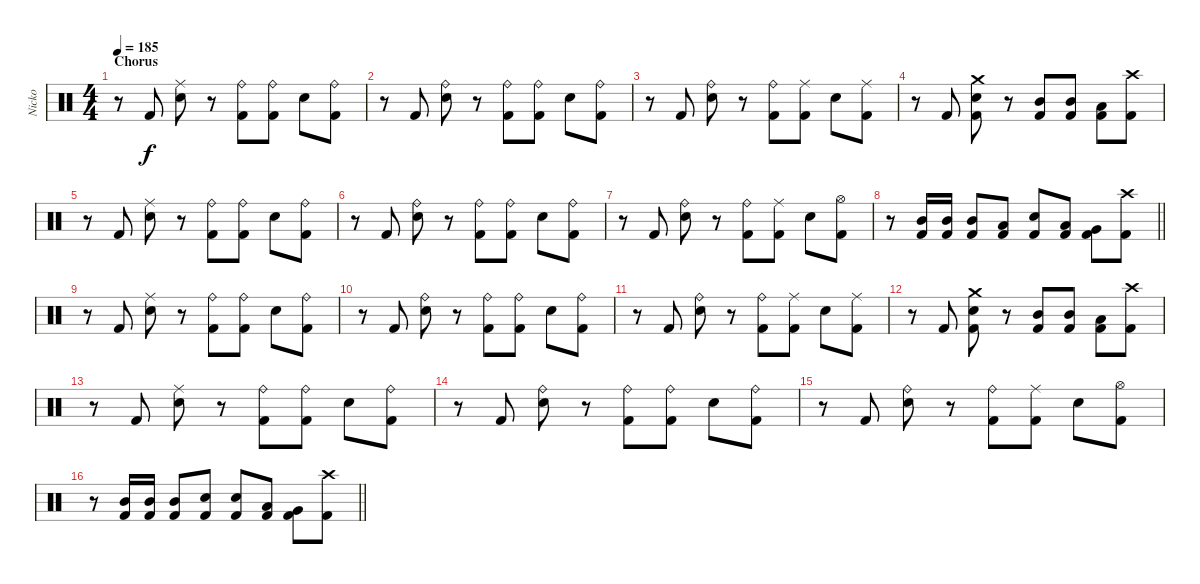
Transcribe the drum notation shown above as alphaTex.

\track ("Nicko" "Nicko") {instrument percussion}
\staff {score}
\articulation defaults
\ts (4 4)
\section ("" "Chorus")
\tempo 185
\clef neutral
\ks c
r.8{dy f} "Kick (hit) 2".8 ("Ride (middle)" "Snare (hit) 2").8 r.8 ("Ride (bell)" "Kick (hit) 2").8 ("Ride (bell)" "Kick (hit) 2").8 "Snare (hit) 2".8 ("Ride (bell)" "Kick (hit) 2").8 |
r.8 "Kick (hit) 2".8 ("Ride (bell)" "Snare (hit) 2").8 r.8 ("Ride (bell)" "Kick (hit) 2").8 ("Ride (bell)" "Kick (hit) 2").8 "Snare (hit) 2".8 ("Ride (bell)" "Kick (hit) 2").8 |
r.8 "Kick (hit) 2".8 ("Ride (bell)" "Snare (hit) 2").8 r.8 ("Ride (bell)" "Kick (hit) 2").8 ("Ride (middle)" "Kick (hit) 2").8 "Snare (hit) 2".8 ("Ride (middle)" "Kick (hit) 2").8 |
r.8 "Kick (hit) 2".8 ("Crash medium (hit)" "Snare (hit) 2" "Kick (hit) 2").8 r.8 ("Mid Tom (hit)" "Kick (hit) 2").8 ("Mid Tom (hit)" "Kick (hit) 2").8 ("Low Tom (hit)" "Kick (hit) 2").8 ("Crash high (hit)" "Kick (hit) 2").8 |
r.8 "Kick (hit) 2".8 ("Ride (middle)" "Snare (hit) 2").8 r.8 ("Ride (bell)" "Kick (hit) 2").8 ("Ride (bell)" "Kick (hit) 2").8 "Snare (hit) 2".8 ("Ride (bell)" "Kick (hit) 2").8 |
r.8 "Kick (hit) 2".8 ("Ride (bell)" "Snare (hit) 2").8 r.8 ("Ride (bell)" "Kick (hit) 2").8 ("Ride (bell)" "Kick (hit) 2").8 "Snare (hit) 2".8 ("Ride (bell)" "Kick (hit) 2").8 |
r.8 "Kick (hit) 2".8 ("Ride (bell)" "Snare (hit) 2").8 r.8 ("Ride (bell)" "Kick (hit) 2").8 ("Ride (middle)" "Kick (hit) 2").8 "Snare (hit) 2".8 ("Hi-Hat (open)" "Kick (hit) 2").8 |
\barLineRight lightlight
r.8 ("Mid Tom (hit)" "Kick (hit) 2").16 ("Mid Tom (hit)" "Kick (hit) 2").16 ("Mid Tom (hit)" "Kick (hit) 2").8 ("Low Tom (hit)" "Kick (hit) 2").8 ("Snare (hit) 2" "Kick (hit) 2").8 ("Low Tom (hit)" "Kick (hit) 2").8 ("Very Low Tom (hit)" "Kick (hit) 2").8 ("Crash high (hit)" "Kick (hit) 2").8 |
r.8 "Kick (hit) 2".8 ("Ride (middle)" "Snare (hit) 2").8 r.8 ("Ride (bell)" "Kick (hit) 2").8 ("Ride (bell)" "Kick (hit) 2").8 "Snare (hit) 2".8 ("Ride (bell)" "Kick (hit) 2").8 |
r.8 "Kick (hit) 2".8 ("Ride (bell)" "Snare (hit) 2").8 r.8 ("Ride (bell)" "Kick (hit) 2").8 ("Ride (bell)" "Kick (hit) 2").8 "Snare (hit) 2".8 ("Ride (bell)" "Kick (hit) 2").8 |
r.8 "Kick (hit) 2".8 ("Ride (bell)" "Snare (hit) 2").8 r.8 ("Ride (bell)" "Kick (hit) 2").8 ("Ride (middle)" "Kick (hit) 2").8 "Snare (hit) 2".8 ("Ride (middle)" "Kick (hit) 2").8 |
r.8 "Kick (hit) 2".8 ("Crash medium (hit)" "Snare (hit) 2" "Kick (hit) 2").8 r.8 ("Mid Tom (hit)" "Kick (hit) 2").8 ("Mid Tom (hit)" "Kick (hit) 2").8 ("Low Tom (hit)" "Kick (hit) 2").8 ("Crash high (hit)" "Kick (hit) 2").8 |
r.8 "Kick (hit) 2".8 ("Ride (middle)" "Snare (hit) 2").8 r.8 ("Ride (bell)" "Kick (hit) 2").8 ("Ride (bell)" "Kick (hit) 2").8 "Snare (hit) 2".8 ("Ride (bell)" "Kick (hit) 2").8 |
r.8 "Kick (hit) 2".8 ("Ride (bell)" "Snare (hit) 2").8 r.8 ("Ride (bell)" "Kick (hit) 2").8 ("Ride (bell)" "Kick (hit) 2").8 "Snare (hit) 2".8 ("Ride (bell)" "Kick (hit) 2").8 |
r.8 "Kick (hit) 2".8 ("Ride (bell)" "Snare (hit) 2").8 r.8 ("Ride (bell)" "Kick (hit) 2").8 ("Ride (middle)" "Kick (hit) 2").8 "Snare (hit) 2".8 ("Hi-Hat (open)" "Kick (hit) 2").8 |
\barLineRight lightlight
r.8 ("Mid Tom (hit)" "Kick (hit) 2").16 ("Mid Tom (hit)" "Kick (hit) 2").16 ("Mid Tom (hit)" "Kick (hit) 2").8 ("Snare (hit) 2" "Kick (hit) 2").8 ("Snare (hit) 2" "Kick (hit) 2").8 ("Low Tom (hit)" "Kick (hit) 2").8 ("Very Low Tom (hit)" "Kick (hit) 2").8 ("Crash high (hit)" "Kick (hit) 2").8
